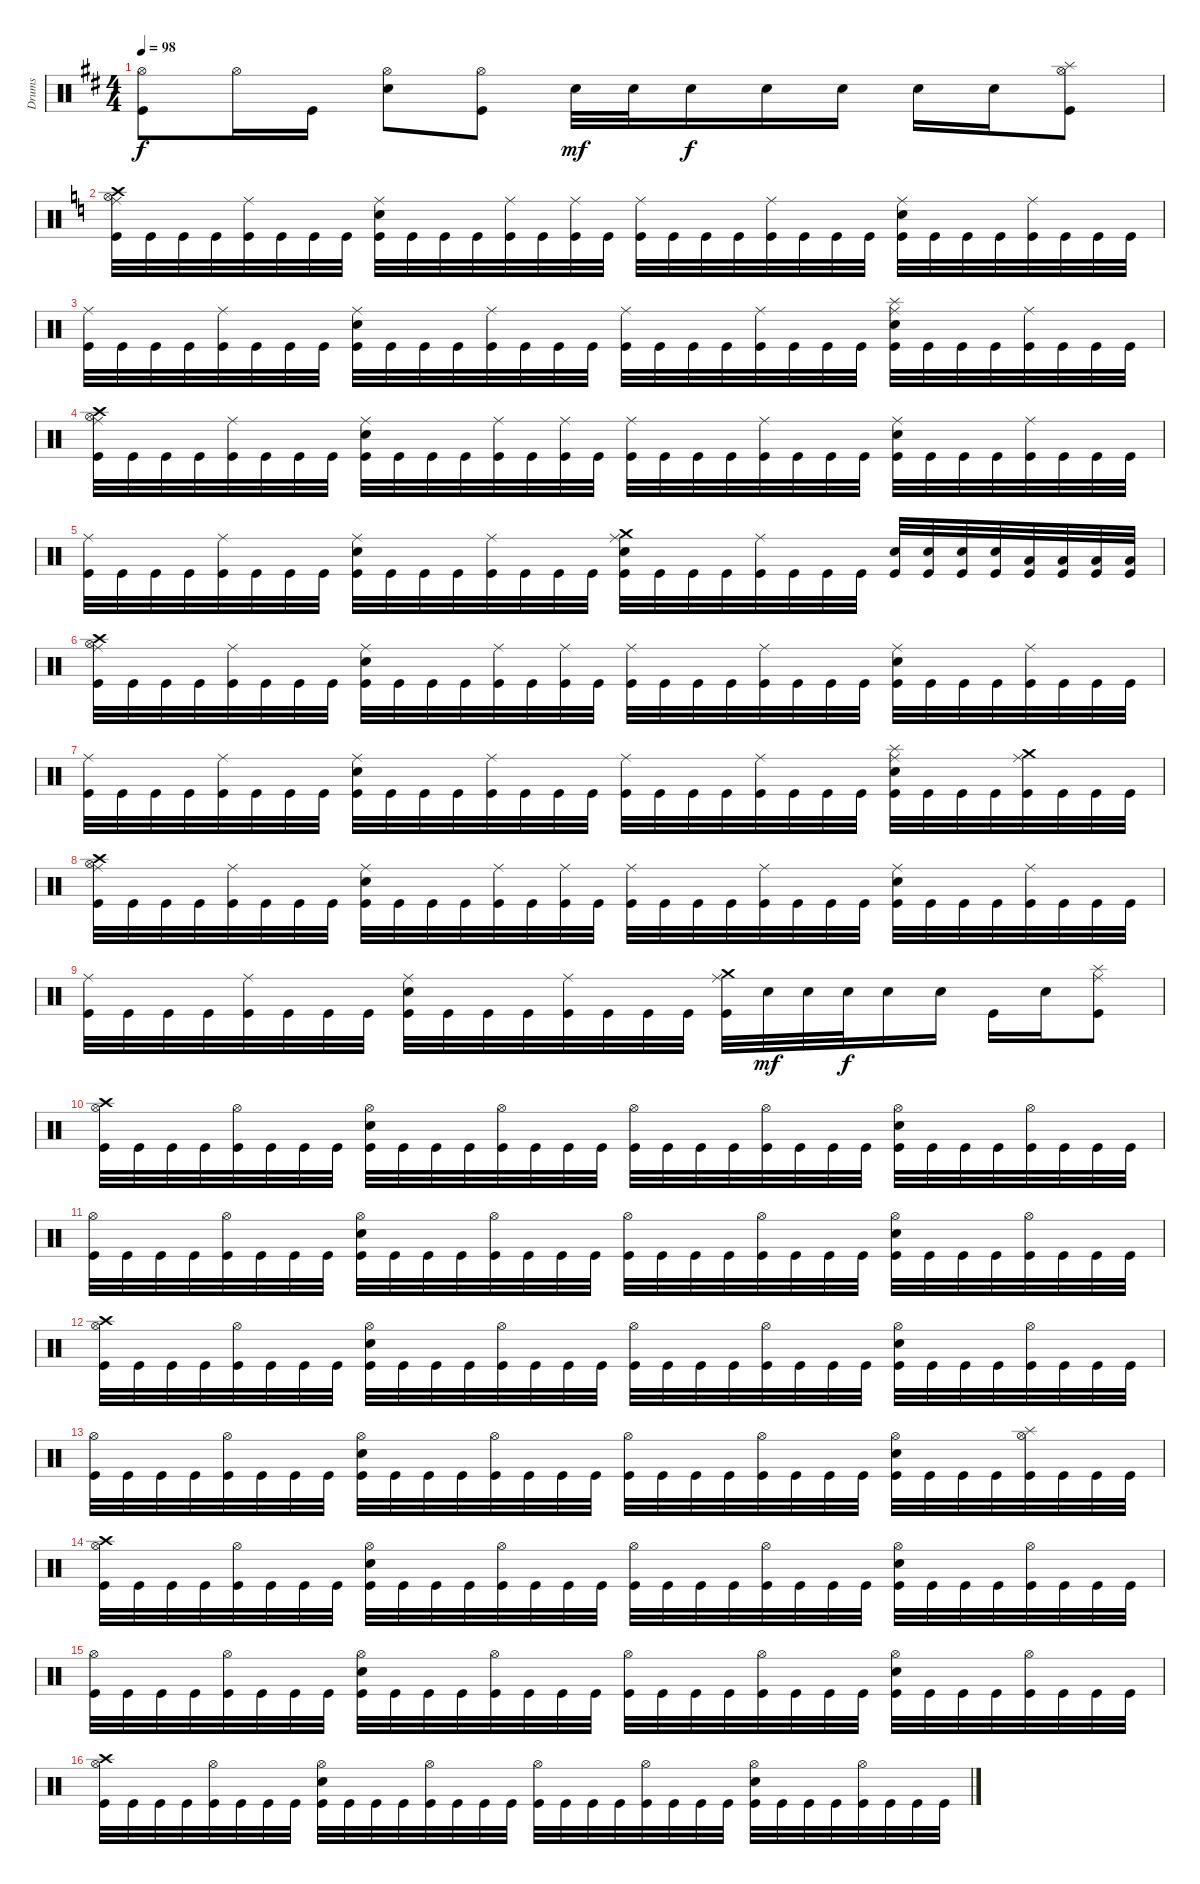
\track ("Drums" "Drums") {instrument percussion}
\staff {score}
\articulation defaults
\ts (4 4)
\tempo 98
\clef neutral
\ks bminor
("Hi-Hat (open)" "Kick (hit)").8{dy f} "Hi-Hat (open)".16 "Kick (hit)".16 ("Hi-Hat (open)" "Electric Snare (hit)").8 ("Hi-Hat (open)" "Kick (hit)").8 "Electric Snare (hit)".32{dy mf} "Electric Snare (hit)".32 "Electric Snare (hit)".16{dy f} "Electric Snare (hit)".16 "Electric Snare (hit)".16 "Electric Snare (hit)".16 "Electric Snare (hit)".16 ("Splash (hit)" "Hi-Hat (open)" "Kick (hit)").8 |
\ks aminor
("Crash high (hit)" "Hi-Hat (open)" "Ride (middle)" "Kick (hit)").32 "Kick (hit)".32 "Kick (hit)".32 "Kick (hit)".32 ("Ride (middle)" "Kick (hit)").32 "Kick (hit)".32 "Kick (hit)".32 "Kick (hit)".32 ("Ride (middle)" "Electric Snare (hit)" "Kick (hit)").32 "Kick (hit)".32 "Kick (hit)".32 "Kick (hit)".32 ("Ride (middle)" "Kick (hit)").32 "Kick (hit)".32 ("Ride (middle)" "Kick (hit)").32 "Kick (hit)".32 ("Ride (middle)" "Kick (hit)").32 "Kick (hit)".32 "Kick (hit)".32 "Kick (hit)".32 ("Ride (middle)" "Kick (hit)").32 "Kick (hit)".32 "Kick (hit)".32 "Kick (hit)".32 ("Ride (middle)" "Electric Snare (hit)" "Kick (hit)").32 "Kick (hit)".32 "Kick (hit)".32 "Kick (hit)".32 ("Ride (middle)" "Kick (hit)").32 "Kick (hit)".32 "Kick (hit)".32 "Kick (hit)".32 |
("Ride (middle)" "Kick (hit)").32 "Kick (hit)".32 "Kick (hit)".32 "Kick (hit)".32 ("Ride (middle)" "Kick (hit)").32 "Kick (hit)".32 "Kick (hit)".32 "Kick (hit)".32 ("Ride (middle)" "Electric Snare (hit)" "Kick (hit)").32 "Kick (hit)".32 "Kick (hit)".32 "Kick (hit)".32 ("Ride (middle)" "Kick (hit)").32 "Kick (hit)".32 "Kick (hit)".32 "Kick (hit)".32 ("Ride (middle)" "Kick (hit)").32 "Kick (hit)".32 "Kick (hit)".32 "Kick (hit)".32 ("Ride (middle)" "Kick (hit)").32 "Kick (hit)".32 "Kick (hit)".32 "Kick (hit)".32 ("Ride (middle)" "Splash (hit)" "Electric Snare (hit)" "Kick (hit)").32 "Kick (hit)".32 "Kick (hit)".32 "Kick (hit)".32 ("Ride (middle)" "Kick (hit)").32 "Kick (hit)".32 "Kick (hit)".32 "Kick (hit)".32 |
("Crash high (hit)" "Hi-Hat (open)" "Ride (middle)" "Kick (hit)").32 "Kick (hit)".32 "Kick (hit)".32 "Kick (hit)".32 ("Ride (middle)" "Kick (hit)").32 "Kick (hit)".32 "Kick (hit)".32 "Kick (hit)".32 ("Ride (middle)" "Electric Snare (hit)" "Kick (hit)").32 "Kick (hit)".32 "Kick (hit)".32 "Kick (hit)".32 ("Ride (middle)" "Kick (hit)").32 "Kick (hit)".32 ("Ride (middle)" "Kick (hit)").32 "Kick (hit)".32 ("Ride (middle)" "Kick (hit)").32 "Kick (hit)".32 "Kick (hit)".32 "Kick (hit)".32 ("Ride (middle)" "Kick (hit)").32 "Kick (hit)".32 "Kick (hit)".32 "Kick (hit)".32 ("Ride (middle)" "Electric Snare (hit)" "Kick (hit)").32 "Kick (hit)".32 "Kick (hit)".32 "Kick (hit)".32 ("Ride (middle)" "Kick (hit)").32 "Kick (hit)".32 "Kick (hit)".32 "Kick (hit)".32 |
("Ride (middle)" "Kick (hit)").32 "Kick (hit)".32 "Kick (hit)".32 "Kick (hit)".32 ("Ride (middle)" "Kick (hit)").32 "Kick (hit)".32 "Kick (hit)".32 "Kick (hit)".32 ("Ride (middle)" "Electric Snare (hit)" "Kick (hit)").32 "Kick (hit)".32 "Kick (hit)".32 "Kick (hit)".32 ("Ride (middle)" "Kick (hit)").32 "Kick (hit)".32 "Kick (hit)".32 "Kick (hit)".32 ("Crash medium (hit)" "Ride (middle)" "Electric Snare (hit)" "Kick (hit)").32 "Kick (hit)".32 "Kick (hit)".32 "Kick (hit)".32 ("Ride (middle)" "Kick (hit)").32 "Kick (hit)".32 "Kick (hit)".32 "Kick (hit)".32 ("Electric Snare (hit)" "Kick (hit)").32 ("Electric Snare (hit)" "Kick (hit)").32 ("Electric Snare (hit)" "Kick (hit)").32 ("Electric Snare (hit)" "Kick (hit)").32 ("Low Tom (hit)" "Kick (hit)").32 ("Low Tom (hit)" "Kick (hit)").32 ("Low Tom (hit)" "Kick (hit)").32 ("Low Tom (hit)" "Kick (hit)").32 |
("Crash high (hit)" "Hi-Hat (open)" "Ride (middle)" "Kick (hit)").32 "Kick (hit)".32 "Kick (hit)".32 "Kick (hit)".32 ("Ride (middle)" "Kick (hit)").32 "Kick (hit)".32 "Kick (hit)".32 "Kick (hit)".32 ("Ride (middle)" "Electric Snare (hit)" "Kick (hit)").32 "Kick (hit)".32 "Kick (hit)".32 "Kick (hit)".32 ("Ride (middle)" "Kick (hit)").32 "Kick (hit)".32 ("Ride (middle)" "Kick (hit)").32 "Kick (hit)".32 ("Ride (middle)" "Kick (hit)").32 "Kick (hit)".32 "Kick (hit)".32 "Kick (hit)".32 ("Ride (middle)" "Kick (hit)").32 "Kick (hit)".32 "Kick (hit)".32 "Kick (hit)".32 ("Ride (middle)" "Electric Snare (hit)" "Kick (hit)").32 "Kick (hit)".32 "Kick (hit)".32 "Kick (hit)".32 ("Ride (middle)" "Kick (hit)").32 "Kick (hit)".32 "Kick (hit)".32 "Kick (hit)".32 |
("Ride (middle)" "Kick (hit)").32 "Kick (hit)".32 "Kick (hit)".32 "Kick (hit)".32 ("Ride (middle)" "Kick (hit)").32 "Kick (hit)".32 "Kick (hit)".32 "Kick (hit)".32 ("Ride (middle)" "Electric Snare (hit)" "Kick (hit)").32 "Kick (hit)".32 "Kick (hit)".32 "Kick (hit)".32 ("Ride (middle)" "Kick (hit)").32 "Kick (hit)".32 "Kick (hit)".32 "Kick (hit)".32 ("Ride (middle)" "Kick (hit)").32 "Kick (hit)".32 "Kick (hit)".32 "Kick (hit)".32 ("Ride (middle)" "Kick (hit)").32 "Kick (hit)".32 "Kick (hit)".32 "Kick (hit)".32 ("Ride (middle)" "Splash (hit)" "Electric Snare (hit)" "Kick (hit)").32 "Kick (hit)".32 "Kick (hit)".32 "Kick (hit)".32 ("Crash medium (hit)" "Ride (middle)" "Kick (hit)").32 "Kick (hit)".32 "Kick (hit)".32 "Kick (hit)".32 |
("Crash high (hit)" "Hi-Hat (open)" "Ride (middle)" "Kick (hit)").32 "Kick (hit)".32 "Kick (hit)".32 "Kick (hit)".32 ("Ride (middle)" "Kick (hit)").32 "Kick (hit)".32 "Kick (hit)".32 "Kick (hit)".32 ("Ride (middle)" "Electric Snare (hit)" "Kick (hit)").32 "Kick (hit)".32 "Kick (hit)".32 "Kick (hit)".32 ("Ride (middle)" "Kick (hit)").32 "Kick (hit)".32 ("Ride (middle)" "Kick (hit)").32 "Kick (hit)".32 ("Ride (middle)" "Kick (hit)").32 "Kick (hit)".32 "Kick (hit)".32 "Kick (hit)".32 ("Ride (middle)" "Kick (hit)").32 "Kick (hit)".32 "Kick (hit)".32 "Kick (hit)".32 ("Ride (middle)" "Electric Snare (hit)" "Kick (hit)").32 "Kick (hit)".32 "Kick (hit)".32 "Kick (hit)".32 ("Ride (middle)" "Kick (hit)").32 "Kick (hit)".32 "Kick (hit)".32 "Kick (hit)".32 |
("Ride (middle)" "Kick (hit)").32 "Kick (hit)".32 "Kick (hit)".32 "Kick (hit)".32 ("Ride (middle)" "Kick (hit)").32 "Kick (hit)".32 "Kick (hit)".32 "Kick (hit)".32 ("Ride (middle)" "Electric Snare (hit)" "Kick (hit)").32 "Kick (hit)".32 "Kick (hit)".32 "Kick (hit)".32 ("Ride (middle)" "Kick (hit)").32 "Kick (hit)".32 "Kick (hit)".32 "Kick (hit)".32 ("Crash medium (hit)" "Ride (middle)" "Kick (hit)").32 "Electric Snare (hit)".32{dy mf} "Electric Snare (hit)".32 "Electric Snare (hit)".32{dy f} "Electric Snare (hit)".16 "Electric Snare (hit)".16 "Kick (hit)".16 "Electric Snare (hit)".16 ("Ride (middle)" "Splash (hit)" "Kick (hit)").8 |
("Crash high (hit)" "Hi-Hat (open)" "Kick (hit)").32 "Kick (hit)".32 "Kick (hit)".32 "Kick (hit)".32 ("Hi-Hat (open)" "Kick (hit)").32 "Kick (hit)".32 "Kick (hit)".32 "Kick (hit)".32 ("Hi-Hat (open)" "Electric Snare (hit)" "Kick (hit)").32 "Kick (hit)".32 "Kick (hit)".32 "Kick (hit)".32 ("Hi-Hat (open)" "Kick (hit)").32 "Kick (hit)".32 "Kick (hit)".32 "Kick (hit)".32 ("Hi-Hat (open)" "Kick (hit)").32 "Kick (hit)".32 "Kick (hit)".32 "Kick (hit)".32 ("Hi-Hat (open)" "Kick (hit)").32 "Kick (hit)".32 "Kick (hit)".32 "Kick (hit)".32 ("Hi-Hat (open)" "Electric Snare (hit)" "Kick (hit)").32 "Kick (hit)".32 "Kick (hit)".32 "Kick (hit)".32 ("Hi-Hat (open)" "Kick (hit)").32 "Kick (hit)".32 "Kick (hit)".32 "Kick (hit)".32 |
("Hi-Hat (open)" "Kick (hit)").32 "Kick (hit)".32 "Kick (hit)".32 "Kick (hit)".32 ("Hi-Hat (open)" "Kick (hit)").32 "Kick (hit)".32 "Kick (hit)".32 "Kick (hit)".32 ("Hi-Hat (open)" "Electric Snare (hit)" "Kick (hit)").32 "Kick (hit)".32 "Kick (hit)".32 "Kick (hit)".32 ("Hi-Hat (open)" "Kick (hit)").32 "Kick (hit)".32 "Kick (hit)".32 "Kick (hit)".32 ("Hi-Hat (open)" "Kick (hit)").32 "Kick (hit)".32 "Kick (hit)".32 "Kick (hit)".32 ("Hi-Hat (open)" "Kick (hit)").32 "Kick (hit)".32 "Kick (hit)".32 "Kick (hit)".32 ("Hi-Hat (open)" "Electric Snare (hit)" "Kick (hit)").32 "Kick (hit)".32 "Kick (hit)".32 "Kick (hit)".32 ("Hi-Hat (open)" "Kick (hit)").32 "Kick (hit)".32 "Kick (hit)".32 "Kick (hit)".32 |
("Crash high (hit)" "Hi-Hat (open)" "Kick (hit)").32 "Kick (hit)".32 "Kick (hit)".32 "Kick (hit)".32 ("Hi-Hat (open)" "Kick (hit)").32 "Kick (hit)".32 "Kick (hit)".32 "Kick (hit)".32 ("Hi-Hat (open)" "Electric Snare (hit)" "Kick (hit)").32 "Kick (hit)".32 "Kick (hit)".32 "Kick (hit)".32 ("Hi-Hat (open)" "Kick (hit)").32 "Kick (hit)".32 "Kick (hit)".32 "Kick (hit)".32 ("Hi-Hat (open)" "Kick (hit)").32 "Kick (hit)".32 "Kick (hit)".32 "Kick (hit)".32 ("Hi-Hat (open)" "Kick (hit)").32 "Kick (hit)".32 "Kick (hit)".32 "Kick (hit)".32 ("Hi-Hat (open)" "Electric Snare (hit)" "Kick (hit)").32 "Kick (hit)".32 "Kick (hit)".32 "Kick (hit)".32 ("Hi-Hat (open)" "Kick (hit)").32 "Kick (hit)".32 "Kick (hit)".32 "Kick (hit)".32 |
("Hi-Hat (open)" "Kick (hit)").32 "Kick (hit)".32 "Kick (hit)".32 "Kick (hit)".32 ("Hi-Hat (open)" "Kick (hit)").32 "Kick (hit)".32 "Kick (hit)".32 "Kick (hit)".32 ("Hi-Hat (open)" "Electric Snare (hit)" "Kick (hit)").32 "Kick (hit)".32 "Kick (hit)".32 "Kick (hit)".32 ("Hi-Hat (open)" "Kick (hit)").32 "Kick (hit)".32 "Kick (hit)".32 "Kick (hit)".32 ("Hi-Hat (open)" "Kick (hit)").32 "Kick (hit)".32 "Kick (hit)".32 "Kick (hit)".32 ("Hi-Hat (open)" "Kick (hit)").32 "Kick (hit)".32 "Kick (hit)".32 "Kick (hit)".32 ("Hi-Hat (open)" "Electric Snare (hit)" "Kick (hit)").32 "Kick (hit)".32 "Kick (hit)".32 "Kick (hit)".32 ("Splash (hit)" "Hi-Hat (open)" "Kick (hit)").32 "Kick (hit)".32 "Kick (hit)".32 "Kick (hit)".32 |
("Crash high (hit)" "Hi-Hat (open)" "Kick (hit)").32 "Kick (hit)".32 "Kick (hit)".32 "Kick (hit)".32 ("Hi-Hat (open)" "Kick (hit)").32 "Kick (hit)".32 "Kick (hit)".32 "Kick (hit)".32 ("Hi-Hat (open)" "Electric Snare (hit)" "Kick (hit)").32 "Kick (hit)".32 "Kick (hit)".32 "Kick (hit)".32 ("Hi-Hat (open)" "Kick (hit)").32 "Kick (hit)".32 "Kick (hit)".32 "Kick (hit)".32 ("Hi-Hat (open)" "Kick (hit)").32 "Kick (hit)".32 "Kick (hit)".32 "Kick (hit)".32 ("Hi-Hat (open)" "Kick (hit)").32 "Kick (hit)".32 "Kick (hit)".32 "Kick (hit)".32 ("Hi-Hat (open)" "Electric Snare (hit)" "Kick (hit)").32 "Kick (hit)".32 "Kick (hit)".32 "Kick (hit)".32 ("Hi-Hat (open)" "Kick (hit)").32 "Kick (hit)".32 "Kick (hit)".32 "Kick (hit)".32 |
("Hi-Hat (open)" "Kick (hit)").32 "Kick (hit)".32 "Kick (hit)".32 "Kick (hit)".32 ("Hi-Hat (open)" "Kick (hit)").32 "Kick (hit)".32 "Kick (hit)".32 "Kick (hit)".32 ("Hi-Hat (open)" "Electric Snare (hit)" "Kick (hit)").32 "Kick (hit)".32 "Kick (hit)".32 "Kick (hit)".32 ("Hi-Hat (open)" "Kick (hit)").32 "Kick (hit)".32 "Kick (hit)".32 "Kick (hit)".32 ("Hi-Hat (open)" "Kick (hit)").32 "Kick (hit)".32 "Kick (hit)".32 "Kick (hit)".32 ("Hi-Hat (open)" "Kick (hit)").32 "Kick (hit)".32 "Kick (hit)".32 "Kick (hit)".32 ("Hi-Hat (open)" "Electric Snare (hit)" "Kick (hit)").32 "Kick (hit)".32 "Kick (hit)".32 "Kick (hit)".32 ("Hi-Hat (open)" "Kick (hit)").32 "Kick (hit)".32 "Kick (hit)".32 "Kick (hit)".32 |
("Crash high (hit)" "Hi-Hat (open)" "Kick (hit)").32 "Kick (hit)".32 "Kick (hit)".32 "Kick (hit)".32 ("Hi-Hat (open)" "Kick (hit)").32 "Kick (hit)".32 "Kick (hit)".32 "Kick (hit)".32 ("Hi-Hat (open)" "Electric Snare (hit)" "Kick (hit)").32 "Kick (hit)".32 "Kick (hit)".32 "Kick (hit)".32 ("Hi-Hat (open)" "Kick (hit)").32 "Kick (hit)".32 "Kick (hit)".32 "Kick (hit)".32 ("Hi-Hat (open)" "Kick (hit)").32 "Kick (hit)".32 "Kick (hit)".32 "Kick (hit)".32 ("Hi-Hat (open)" "Kick (hit)").32 "Kick (hit)".32 "Kick (hit)".32 "Kick (hit)".32 ("Hi-Hat (open)" "Electric Snare (hit)" "Kick (hit)").32 "Kick (hit)".32 "Kick (hit)".32 "Kick (hit)".32 ("Hi-Hat (open)" "Kick (hit)").32 "Kick (hit)".32 "Kick (hit)".32 "Kick (hit)".32
